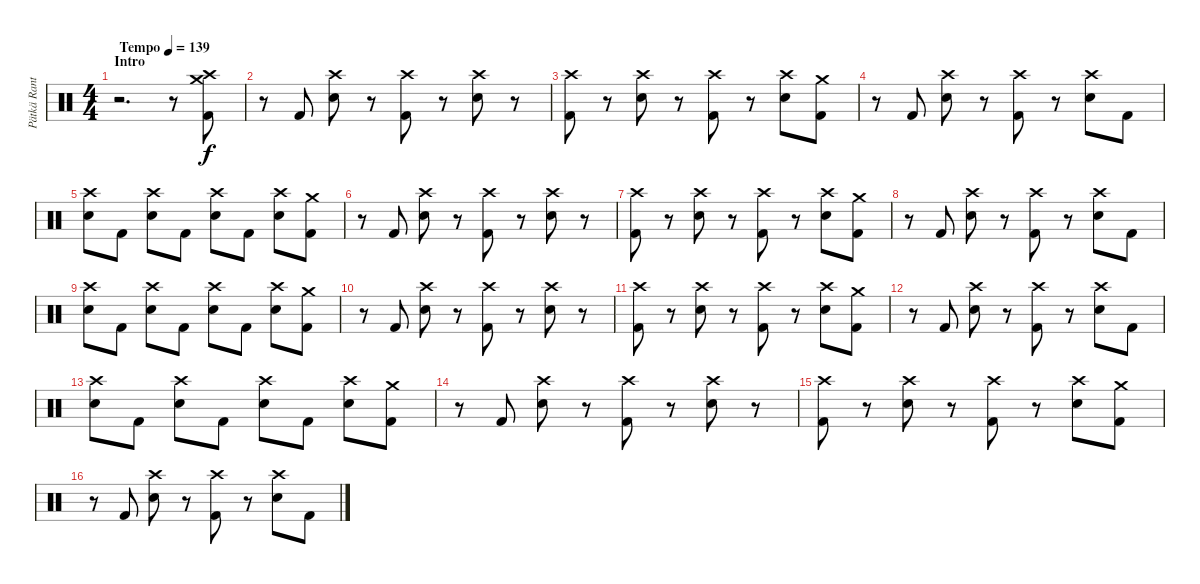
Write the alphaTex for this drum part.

\track ("Pätkä Rantala (Drums)" "Pätkä Rant") {instrument percussion}
\staff {score}
\articulation defaults
\ts (4 4)
\section ("" "Intro")
\tempo (139 "Tempo")
\clef neutral
\ks c
r.2{d dy f} r.8 ("Crash medium (hit)" "Crash high (hit)" "Kick (hit) 2").8 |
r.8 "Kick (hit) 2".8 ("Crash high (hit)" "Snare (hit) 2").8 r.8 ("Crash high (hit)" "Kick (hit) 2").8 r.8 ("Crash high (hit)" "Snare (hit) 2").8 r.8 |
("Crash high (hit)" "Kick (hit) 2").8 r.8 ("Crash high (hit)" "Snare (hit) 2").8 r.8 ("Crash high (hit)" "Kick (hit) 2").8 r.8 ("Crash high (hit)" "Snare (hit) 2").8 ("Crash medium (hit)" "Kick (hit) 2").8 |
r.8 "Kick (hit) 2".8 ("Crash high (hit)" "Snare (hit) 2").8 r.8 ("Crash high (hit)" "Kick (hit) 2").8 r.8 ("Crash high (hit)" "Snare (hit) 2").8 "Kick (hit) 2".8 |
("Crash high (hit)" "Snare (hit) 2").8 "Kick (hit) 2".8 ("Crash high (hit)" "Snare (hit) 2").8 "Kick (hit) 2".8 ("Crash high (hit)" "Snare (hit) 2").8 "Kick (hit) 2".8 ("Crash high (hit)" "Snare (hit) 2").8 ("Crash medium (hit)" "Kick (hit) 2").8 |
r.8 "Kick (hit) 2".8 ("Crash high (hit)" "Snare (hit) 2").8 r.8 ("Crash high (hit)" "Kick (hit) 2").8 r.8 ("Crash high (hit)" "Snare (hit) 2").8 r.8 |
("Crash high (hit)" "Kick (hit) 2").8 r.8 ("Crash high (hit)" "Snare (hit) 2").8 r.8 ("Crash high (hit)" "Kick (hit) 2").8 r.8 ("Crash high (hit)" "Snare (hit) 2").8 ("Crash medium (hit)" "Kick (hit) 2").8 |
r.8 "Kick (hit) 2".8 ("Crash high (hit)" "Snare (hit) 2").8 r.8 ("Crash high (hit)" "Kick (hit) 2").8 r.8 ("Crash high (hit)" "Snare (hit) 2").8 "Kick (hit) 2".8 |
("Crash high (hit)" "Snare (hit) 2").8 "Kick (hit) 2".8 ("Crash high (hit)" "Snare (hit) 2").8 "Kick (hit) 2".8 ("Crash high (hit)" "Snare (hit) 2").8 "Kick (hit) 2".8 ("Crash high (hit)" "Snare (hit) 2").8 ("Crash medium (hit)" "Kick (hit) 2").8 |
r.8 "Kick (hit) 2".8 ("Crash high (hit)" "Snare (hit) 2").8 r.8 ("Crash high (hit)" "Kick (hit) 2").8 r.8 ("Crash high (hit)" "Snare (hit) 2").8 r.8 |
("Crash high (hit)" "Kick (hit) 2").8 r.8 ("Crash high (hit)" "Snare (hit) 2").8 r.8 ("Crash high (hit)" "Kick (hit) 2").8 r.8 ("Crash high (hit)" "Snare (hit) 2").8 ("Crash medium (hit)" "Kick (hit) 2").8 |
r.8 "Kick (hit) 2".8 ("Crash high (hit)" "Snare (hit) 2").8 r.8 ("Crash high (hit)" "Kick (hit) 2").8 r.8 ("Crash high (hit)" "Snare (hit) 2").8 "Kick (hit) 2".8 |
("Crash high (hit)" "Snare (hit) 2").8 "Kick (hit) 2".8 ("Crash high (hit)" "Snare (hit) 2").8 "Kick (hit) 2".8 ("Crash high (hit)" "Snare (hit) 2").8 "Kick (hit) 2".8 ("Crash high (hit)" "Snare (hit) 2").8 ("Crash medium (hit)" "Kick (hit) 2").8 |
r.8 "Kick (hit) 2".8 ("Crash high (hit)" "Snare (hit) 2").8 r.8 ("Crash high (hit)" "Kick (hit) 2").8 r.8 ("Crash high (hit)" "Snare (hit) 2").8 r.8 |
("Crash high (hit)" "Kick (hit) 2").8 r.8 ("Crash high (hit)" "Snare (hit) 2").8 r.8 ("Crash high (hit)" "Kick (hit) 2").8 r.8 ("Crash high (hit)" "Snare (hit) 2").8 ("Crash medium (hit)" "Kick (hit) 2").8 |
r.8 "Kick (hit) 2".8 ("Crash high (hit)" "Snare (hit) 2").8 r.8 ("Crash high (hit)" "Kick (hit) 2").8 r.8 ("Crash high (hit)" "Snare (hit) 2").8 "Kick (hit) 2".8
